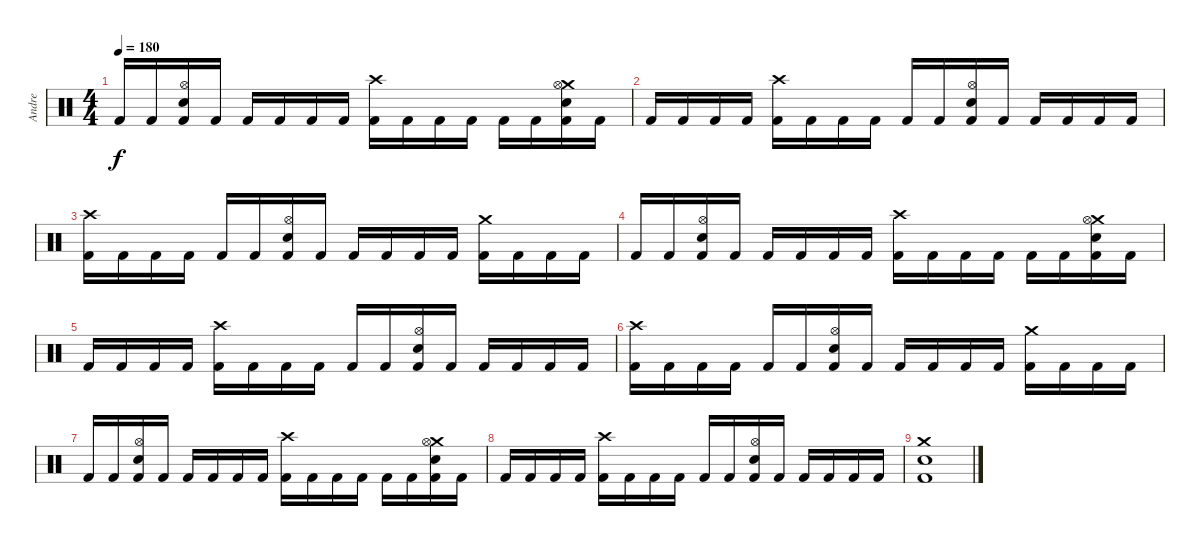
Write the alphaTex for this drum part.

\track ("Andre" "Andre") {instrument percussion}
\staff {score}
\articulation defaults
\ts (4 4)
\tempo 180
\clef neutral
\ks c "Kick (hit) 2".16{dy f} "Kick (hit) 2".16
("Hi-Hat (open)" "Snare (hit) 2" "Kick (hit) 2").16 "Kick (hit) 2".16 "Kick (hit) 2".16 "Kick (hit) 2".16 "Kick (hit) 2".16 "Kick (hit) 2".16 ("Crash high (hit)" "Kick (hit) 2").16 "Kick (hit) 2".16 "Kick (hit) 2".16 "Kick (hit) 2".16 "Kick (hit) 2".16 "Kick (hit) 2".16 ("Crash medium (hit)" "Hi-Hat (open)" "Snare (hit) 2" "Kick (hit) 2").16 "Kick (hit) 2".16 |
"Kick (hit) 2".16 "Kick (hit) 2".16 "Kick (hit) 2".16 "Kick (hit) 2".16 ("Crash high (hit)" "Kick (hit) 2").16 "Kick (hit) 2".16 "Kick (hit) 2".16 "Kick (hit) 2".16 "Kick (hit) 2".16 "Kick (hit) 2".16 ("Hi-Hat (open)" "Snare (hit) 2" "Kick (hit) 2").16 "Kick (hit) 2".16 "Kick (hit) 2".16 "Kick (hit) 2".16 "Kick (hit) 2".16 "Kick (hit) 2".16 |
("Crash high (hit)" "Kick (hit) 2").16 "Kick (hit) 2".16 "Kick (hit) 2".16 "Kick (hit) 2".16 "Kick (hit) 2".16 "Kick (hit) 2".16 ("Hi-Hat (open)" "Snare (hit) 2" "Kick (hit) 2").16 "Kick (hit) 2".16 "Kick (hit) 2".16 "Kick (hit) 2".16 "Kick (hit) 2".16 "Kick (hit) 2".16 ("Crash medium (hit)" "Kick (hit) 2").16 "Kick (hit) 2".16 "Kick (hit) 2".16 "Kick (hit) 2".16 |
"Kick (hit) 2".16 "Kick (hit) 2".16 ("Hi-Hat (open)" "Snare (hit) 2" "Kick (hit) 2").16 "Kick (hit) 2".16 "Kick (hit) 2".16 "Kick (hit) 2".16 "Kick (hit) 2".16 "Kick (hit) 2".16 ("Crash high (hit)" "Kick (hit) 2").16 "Kick (hit) 2".16 "Kick (hit) 2".16 "Kick (hit) 2".16 "Kick (hit) 2".16 "Kick (hit) 2".16 ("Crash medium (hit)" "Hi-Hat (open)" "Snare (hit) 2" "Kick (hit) 2").16 "Kick (hit) 2".16 |
"Kick (hit) 2".16 "Kick (hit) 2".16 "Kick (hit) 2".16 "Kick (hit) 2".16 ("Crash high (hit)" "Kick (hit) 2").16 "Kick (hit) 2".16 "Kick (hit) 2".16 "Kick (hit) 2".16 "Kick (hit) 2".16 "Kick (hit) 2".16 ("Hi-Hat (open)" "Snare (hit) 2" "Kick (hit) 2").16 "Kick (hit) 2".16 "Kick (hit) 2".16 "Kick (hit) 2".16 "Kick (hit) 2".16 "Kick (hit) 2".16 |
("Crash high (hit)" "Kick (hit) 2").16 "Kick (hit) 2".16 "Kick (hit) 2".16 "Kick (hit) 2".16 "Kick (hit) 2".16 "Kick (hit) 2".16 ("Hi-Hat (open)" "Snare (hit) 2" "Kick (hit) 2").16 "Kick (hit) 2".16 "Kick (hit) 2".16 "Kick (hit) 2".16 "Kick (hit) 2".16 "Kick (hit) 2".16 ("Crash medium (hit)" "Kick (hit) 2").16 "Kick (hit) 2".16 "Kick (hit) 2".16 "Kick (hit) 2".16 |
"Kick (hit) 2".16 "Kick (hit) 2".16 ("Hi-Hat (open)" "Snare (hit) 2" "Kick (hit) 2").16 "Kick (hit) 2".16 "Kick (hit) 2".16 "Kick (hit) 2".16 "Kick (hit) 2".16 "Kick (hit) 2".16 ("Crash high (hit)" "Kick (hit) 2").16 "Kick (hit) 2".16 "Kick (hit) 2".16 "Kick (hit) 2".16 "Kick (hit) 2".16 "Kick (hit) 2".16 ("Crash medium (hit)" "Hi-Hat (open)" "Snare (hit) 2" "Kick (hit) 2").16 "Kick (hit) 2".16 |
"Kick (hit) 2".16 "Kick (hit) 2".16 "Kick (hit) 2".16 "Kick (hit) 2".16 ("Crash high (hit)" "Kick (hit) 2").16 "Kick (hit) 2".16 "Kick (hit) 2".16 "Kick (hit) 2".16 "Kick (hit) 2".16 "Kick (hit) 2".16 ("Hi-Hat (open)" "Snare (hit) 2" "Kick (hit) 2").16 "Kick (hit) 2".16 "Kick (hit) 2".16 "Kick (hit) 2".16 "Kick (hit) 2".16 "Kick (hit) 2".16 |
("Crash medium (hit)" "Snare (hit) 2" "Kick (hit) 2").1
